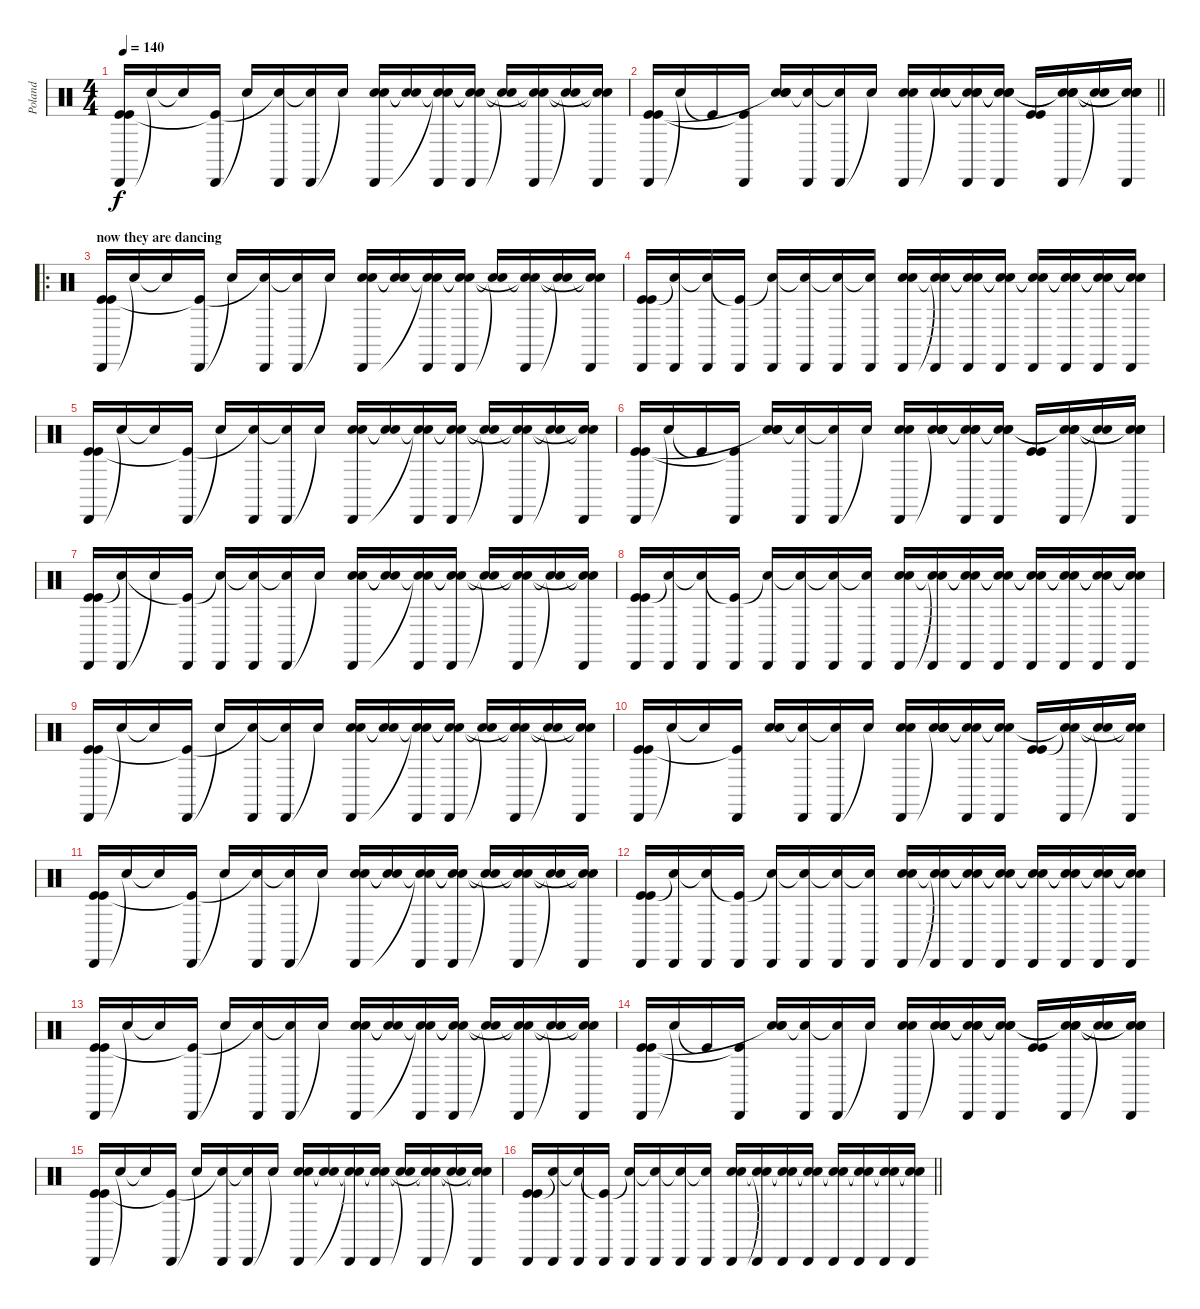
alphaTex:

\track ("Poland" "Poland") {instrument percussion}
\staff {score}
\articulation defaults
\ts (4 4)
\tempo 140
\clef neutral
\ks c
("Cabasa (hit)" "Kick (hit)" "Kick (hit)").16{dy f} "Snare (hit)"{t}.16 "Snare (hit)"{t}.16 ("Cabasa (hit)" "Kick (hit)"{t}).16 "Snare (hit)"{t}.16 ("Cabasa (hit)" "Snare (hit)"{t}).16 ("Cabasa (hit)" "Snare (hit)"{t}).16 "Snare (hit)"{t}.16 ("Hand Clap (hit)" "Hand Clap (hit)" "Cabasa (hit)").16 ("Snare (hit)"{t} "Snare (hit)"{t}).16 ("Cabasa (hit)" "Snare (hit)"{t} "Snare (hit)"{t}).16 ("Cabasa (hit)" "Snare (hit)"{t} "Snare (hit)"{t}).16 ("Snare (hit)"{t} "Snare (hit)"{t}).16 ("Cabasa (hit)" "Snare (hit)"{t} "Snare (hit)"{t}).16 ("Snare (hit)"{t} "Snare (hit)"{t}).16 ("Cabasa (hit)" "Snare (hit)"{t} "Snare (hit)"{t}).16 |
\barLineRight lightlight
("Cabasa (hit)" "Kick (hit)" "Kick (hit)").16 "Snare (hit)"{t}.16 "Kick (hit)"{t}.16 ("Cabasa (hit)" "Kick (hit)"{t}).16 ("Hand Clap (hit)" "Hand Clap (hit)" "Snare (hit)"{t}).16 ("Cabasa (hit)" "Snare (hit)"{t}).16 ("Cabasa (hit)" "Snare (hit)"{t}).16 "Snare (hit)"{t}.16 ("Hand Clap (hit)" "Hand Clap (hit)" "Cabasa (hit)").16 ("Hand Clap (hit)" "Hand Clap (hit)" "Snare (hit)"{t} "Snare (hit)").16 ("Hand Clap (hit)" "Cabasa (hit)" "Snare (hit)"{t} "Snare (hit)"{t}).16 ("Hand Clap (hit)" "Cabasa (hit)" "Snare (hit)"{t} "Snare (hit)"{t}).16 ("Kick (hit)" "Kick (hit)").16 ("Hand Clap (hit)" "Cabasa (hit)" "Snare (hit)"{t} "Snare (hit)"{t}).16 ("Snare (hit)"{t} "Snare (hit)"{t}).16 ("Hand Clap (hit)" "Cabasa (hit)" "Snare (hit)"{t} "Snare (hit)"{t}).16 |
\ro
\section ("" "now they are dancing")
("Cabasa (hit)" "Kick (hit)" "Kick (hit)").16 "Snare (hit)"{t}.16 "Snare (hit)"{t}.16 ("Cabasa (hit)" "Kick (hit)"{t}).16 "Snare (hit)"{t}.16 ("Cabasa (hit)" "Snare (hit)"{t}).16 ("Cabasa (hit)" "Snare (hit)"{t}).16 "Snare (hit)"{t}.16 ("Hand Clap (hit)" "Hand Clap (hit)" "Cabasa (hit)").16 ("Snare (hit)"{t} "Snare (hit)"{t}).16 ("Cabasa (hit)" "Snare (hit)"{t} "Snare (hit)"{t}).16 ("Cabasa (hit)" "Snare (hit)"{t} "Snare (hit)"{t}).16 ("Snare (hit)"{t} "Snare (hit)"{t}).16 ("Cabasa (hit)" "Snare (hit)"{t} "Snare (hit)"{t}).16 ("Snare (hit)"{t} "Snare (hit)"{t}).16 ("Cabasa (hit)" "Snare (hit)"{t} "Snare (hit)"{t}).16 |
("Cabasa (hit)" "Kick (hit)" "Kick (hit)").16 ("Cabasa (hit)" "Snare (hit)"{t}).16 ("Cabasa (hit)" "Snare (hit)"{t}).16 ("Cabasa (hit)" "Kick (hit)"{t}).16 ("Cabasa (hit)" "Snare (hit)"{t}).16 ("Cabasa (hit)" "Snare (hit)"{t}).16 ("Cabasa (hit)" "Snare (hit)"{t}).16 ("Cabasa (hit)" "Snare (hit)"{t}).16 ("Hand Clap (hit)" "Hand Clap (hit)" "Cabasa (hit)").16 ("Cabasa (hit)" "Snare (hit)"{t} "Snare (hit)"{t}).16 ("Cabasa (hit)" "Snare (hit)"{t} "Snare (hit)"{t}).16 ("Cabasa (hit)" "Snare (hit)"{t} "Snare (hit)"{t}).16 ("Cabasa (hit)" "Snare (hit)"{t} "Snare (hit)"{t}).16 ("Cabasa (hit)" "Snare (hit)"{t} "Snare (hit)"{t}).16 ("Cabasa (hit)" "Snare (hit)"{t} "Snare (hit)"{t}).16 ("Cabasa (hit)" "Snare (hit)"{t} "Snare (hit)"{t}).16 |
("Cabasa (hit)" "Kick (hit)" "Kick (hit)").16 "Snare (hit)"{t}.16 "Snare (hit)"{t}.16 ("Cabasa (hit)" "Kick (hit)"{t}).16 "Snare (hit)"{t}.16 ("Cabasa (hit)" "Snare (hit)"{t}).16 ("Cabasa (hit)" "Snare (hit)"{t}).16 "Snare (hit)"{t}.16 ("Hand Clap (hit)" "Hand Clap (hit)" "Cabasa (hit)").16 ("Snare (hit)"{t} "Snare (hit)"{t}).16 ("Cabasa (hit)" "Snare (hit)"{t} "Snare (hit)"{t}).16 ("Cabasa (hit)" "Snare (hit)"{t} "Snare (hit)"{t}).16 ("Snare (hit)"{t} "Snare (hit)"{t}).16 ("Cabasa (hit)" "Snare (hit)"{t} "Snare (hit)"{t}).16 ("Snare (hit)"{t} "Snare (hit)"{t}).16 ("Cabasa (hit)" "Snare (hit)"{t} "Snare (hit)"{t}).16 |
("Cabasa (hit)" "Kick (hit)" "Kick (hit)").16 "Snare (hit)"{t}.16 "Kick (hit)"{t}.16 ("Cabasa (hit)" "Kick (hit)"{t}).16 ("Hand Clap (hit)" "Hand Clap (hit)" "Snare (hit)"{t}).16 ("Cabasa (hit)" "Snare (hit)"{t}).16 ("Cabasa (hit)" "Snare (hit)"{t}).16 "Snare (hit)"{t}.16 ("Hand Clap (hit)" "Hand Clap (hit)" "Cabasa (hit)").16 ("Hand Clap (hit)" "Hand Clap (hit)" "Snare (hit)"{t} "Snare (hit)").16 ("Hand Clap (hit)" "Cabasa (hit)" "Snare (hit)"{t} "Snare (hit)"{t}).16 ("Hand Clap (hit)" "Cabasa (hit)" "Snare (hit)"{t} "Snare (hit)"{t}).16 ("Kick (hit)" "Kick (hit)").16 ("Hand Clap (hit)" "Cabasa (hit)" "Snare (hit)"{t} "Snare (hit)"{t}).16 ("Snare (hit)"{t} "Snare (hit)"{t}).16 ("Hand Clap (hit)" "Cabasa (hit)" "Snare (hit)"{t} "Snare (hit)"{t}).16 |
("Cabasa (hit)" "Kick (hit)" "Kick (hit)").16{volume 11} ("Cabasa (hit)" "Snare (hit)"{t}).16 "Snare (hit)"{t}.16 ("Cabasa (hit)" "Kick (hit)"{t}).16 ("Cabasa (hit)" "Snare (hit)"{t}).16 ("Cabasa (hit)" "Snare (hit)"{t}).16 ("Cabasa (hit)" "Snare (hit)"{t}).16 "Snare (hit)"{t}.16 ("Hand Clap (hit)" "Hand Clap (hit)" "Cabasa (hit)").16 ("Snare (hit)"{t} "Snare (hit)"{t}).16 ("Cabasa (hit)" "Snare (hit)"{t} "Snare (hit)"{t}).16 ("Cabasa (hit)" "Snare (hit)"{t} "Snare (hit)"{t}).16 ("Snare (hit)"{t} "Snare (hit)"{t}).16 ("Cabasa (hit)" "Snare (hit)"{t} "Snare (hit)"{t}).16 ("Snare (hit)"{t} "Snare (hit)"{t}).16 ("Cabasa (hit)" "Snare (hit)"{t} "Snare (hit)"{t}).16 |
("Cabasa (hit)" "Kick (hit)" "Kick (hit)").16 ("Cabasa (hit)" "Snare (hit)"{t}).16 ("Cabasa (hit)" "Snare (hit)"{t}).16 ("Cabasa (hit)" "Kick (hit)"{t}).16 ("Cabasa (hit)" "Snare (hit)"{t}).16 ("Cabasa (hit)" "Snare (hit)"{t}).16 ("Cabasa (hit)" "Snare (hit)"{t}).16 ("Cabasa (hit)" "Snare (hit)"{t}).16 ("Hand Clap (hit)" "Hand Clap (hit)" "Cabasa (hit)").16 ("Cabasa (hit)" "Snare (hit)"{t} "Snare (hit)"{t}).16 ("Cabasa (hit)" "Snare (hit)"{t} "Snare (hit)"{t}).16 ("Cabasa (hit)" "Snare (hit)"{t} "Snare (hit)"{t}).16 ("Cabasa (hit)" "Snare (hit)"{t} "Snare (hit)"{t}).16 ("Cabasa (hit)" "Snare (hit)"{t} "Snare (hit)"{t}).16 ("Cabasa (hit)" "Snare (hit)"{t} "Snare (hit)"{t}).16 ("Cabasa (hit)" "Snare (hit)"{t} "Snare (hit)"{t}).16 |
("Cabasa (hit)" "Kick (hit)" "Kick (hit)").16 "Snare (hit)"{t}.16 "Snare (hit)"{t}.16 ("Cabasa (hit)" "Kick (hit)"{t}).16 "Snare (hit)"{t}.16 ("Cabasa (hit)" "Snare (hit)"{t}).16 ("Cabasa (hit)" "Snare (hit)"{t}).16 "Snare (hit)"{t}.16 ("Hand Clap (hit)" "Hand Clap (hit)" "Cabasa (hit)").16 ("Snare (hit)"{t} "Snare (hit)"{t}).16 ("Cabasa (hit)" "Snare (hit)"{t} "Snare (hit)"{t}).16 ("Cabasa (hit)" "Snare (hit)"{t} "Snare (hit)"{t}).16 ("Snare (hit)"{t} "Snare (hit)"{t}).16 ("Cabasa (hit)" "Snare (hit)"{t} "Snare (hit)"{t}).16 ("Snare (hit)"{t} "Snare (hit)"{t}).16 ("Cabasa (hit)" "Snare (hit)"{t} "Snare (hit)"{t}).16 |
("Cabasa (hit)" "Kick (hit)" "Kick (hit)").16 "Snare (hit)"{t}.16 "Snare (hit)"{t}.16 ("Cabasa (hit)" "Kick (hit)"{t}).16 ("Hand Clap (hit)" "Hand Clap (hit)").16 ("Cabasa (hit)" "Snare (hit)"{t}).16 ("Cabasa (hit)" "Snare (hit)"{t}).16 "Snare (hit)"{t}.16 ("Hand Clap (hit)" "Hand Clap (hit)" "Cabasa (hit)").16 ("Hand Clap (hit)" "Hand Clap (hit)" "Snare (hit)"{t} "Snare (hit)").16 ("Cabasa (hit)" "Snare (hit)"{t} "Snare (hit)"{t}).16 ("Cabasa (hit)" "Snare (hit)"{t} "Snare (hit)"{t}).16 ("Kick (hit)" "Kick (hit)").16 ("Cabasa (hit)" "Snare (hit)"{t} "Snare (hit)"{t}).16 ("Snare (hit)"{t} "Snare (hit)"{t}).16 ("Cabasa (hit)" "Snare (hit)"{t} "Snare (hit)"{t}).16 |
("Cabasa (hit)" "Kick (hit)" "Kick (hit)").16 "Snare (hit)"{t}.16 "Snare (hit)"{t}.16 ("Cabasa (hit)" "Kick (hit)"{t}).16 "Snare (hit)"{t}.16 ("Cabasa (hit)" "Snare (hit)"{t}).16 ("Cabasa (hit)" "Snare (hit)"{t}).16 "Snare (hit)"{t}.16 ("Hand Clap (hit)" "Hand Clap (hit)" "Cabasa (hit)").16 ("Snare (hit)"{t} "Snare (hit)"{t}).16 ("Cabasa (hit)" "Snare (hit)"{t} "Snare (hit)"{t}).16 ("Cabasa (hit)" "Snare (hit)"{t} "Snare (hit)"{t}).16 ("Snare (hit)"{t} "Snare (hit)"{t}).16 ("Cabasa (hit)" "Snare (hit)"{t} "Snare (hit)"{t}).16 ("Snare (hit)"{t} "Snare (hit)"{t}).16 ("Cabasa (hit)" "Snare (hit)"{t} "Snare (hit)"{t}).16 |
("Cabasa (hit)" "Kick (hit)" "Kick (hit)").16 ("Cabasa (hit)" "Snare (hit)"{t}).16 ("Cabasa (hit)" "Snare (hit)"{t}).16 ("Cabasa (hit)" "Kick (hit)"{t}).16 ("Cabasa (hit)" "Snare (hit)"{t}).16 ("Cabasa (hit)" "Snare (hit)"{t}).16 ("Cabasa (hit)" "Snare (hit)"{t}).16 ("Cabasa (hit)" "Snare (hit)"{t}).16 ("Hand Clap (hit)" "Hand Clap (hit)" "Cabasa (hit)").16 ("Cabasa (hit)" "Snare (hit)"{t} "Snare (hit)"{t}).16 ("Cabasa (hit)" "Snare (hit)"{t} "Snare (hit)"{t}).16 ("Cabasa (hit)" "Snare (hit)"{t} "Snare (hit)"{t}).16 ("Cabasa (hit)" "Snare (hit)"{t} "Snare (hit)"{t}).16 ("Cabasa (hit)" "Snare (hit)"{t} "Snare (hit)"{t}).16 ("Cabasa (hit)" "Snare (hit)"{t} "Snare (hit)"{t}).16 ("Cabasa (hit)" "Snare (hit)"{t} "Snare (hit)"{t}).16 |
("Cabasa (hit)" "Kick (hit)" "Kick (hit)").16{volume 14} "Snare (hit)"{t}.16 "Snare (hit)"{t}.16 ("Cabasa (hit)" "Kick (hit)"{t}).16 "Snare (hit)"{t}.16 ("Cabasa (hit)" "Snare (hit)"{t}).16 ("Cabasa (hit)" "Snare (hit)"{t}).16 "Snare (hit)"{t}.16 ("Hand Clap (hit)" "Hand Clap (hit)" "Cabasa (hit)").16 ("Snare (hit)"{t} "Snare (hit)"{t}).16 ("Cabasa (hit)" "Snare (hit)"{t} "Snare (hit)"{t}).16 ("Cabasa (hit)" "Snare (hit)"{t} "Snare (hit)"{t}).16 ("Snare (hit)"{t} "Snare (hit)"{t}).16 ("Cabasa (hit)" "Snare (hit)"{t} "Snare (hit)"{t}).16 ("Snare (hit)"{t} "Snare (hit)"{t}).16 ("Cabasa (hit)" "Snare (hit)"{t} "Snare (hit)"{t}).16 |
("Cabasa (hit)" "Kick (hit)" "Kick (hit)").16 "Snare (hit)"{t}.16 "Kick (hit)"{t}.16 ("Cabasa (hit)" "Kick (hit)"{t}).16 ("Hand Clap (hit)" "Hand Clap (hit)" "Snare (hit)"{t}).16 ("Cabasa (hit)" "Snare (hit)"{t}).16 ("Cabasa (hit)" "Snare (hit)"{t}).16 "Snare (hit)"{t}.16 ("Hand Clap (hit)" "Hand Clap (hit)" "Cabasa (hit)").16 ("Hand Clap (hit)" "Hand Clap (hit)" "Snare (hit)"{t} "Snare (hit)").16 ("Hand Clap (hit)" "Cabasa (hit)" "Snare (hit)"{t} "Snare (hit)"{t}).16 ("Hand Clap (hit)" "Cabasa (hit)" "Snare (hit)"{t} "Snare (hit)"{t}).16 ("Kick (hit)" "Kick (hit)").16 ("Hand Clap (hit)" "Cabasa (hit)" "Snare (hit)"{t} "Snare (hit)"{t}).16 ("Snare (hit)"{t} "Snare (hit)"{t}).16 ("Hand Clap (hit)" "Cabasa (hit)" "Snare (hit)"{t} "Snare (hit)"{t}).16 |
("Cabasa (hit)" "Kick (hit)" "Kick (hit)").16 "Snare (hit)"{t}.16 "Snare (hit)"{t}.16 ("Cabasa (hit)" "Kick (hit)"{t}).16 "Snare (hit)"{t}.16 ("Cabasa (hit)" "Snare (hit)"{t}).16 ("Cabasa (hit)" "Snare (hit)"{t}).16 "Snare (hit)"{t}.16 ("Hand Clap (hit)" "Hand Clap (hit)" "Cabasa (hit)").16 ("Snare (hit)"{t} "Snare (hit)"{t}).16 ("Cabasa (hit)" "Snare (hit)"{t} "Snare (hit)"{t}).16 ("Cabasa (hit)" "Snare (hit)"{t} "Snare (hit)"{t}).16 ("Snare (hit)"{t} "Snare (hit)"{t}).16 ("Cabasa (hit)" "Snare (hit)"{t} "Snare (hit)"{t}).16 ("Snare (hit)"{t} "Snare (hit)"{t}).16 ("Cabasa (hit)" "Snare (hit)"{t} "Snare (hit)"{t}).16 |
\barLineRight lightlight
("Cabasa (hit)" "Kick (hit)" "Kick (hit)").16 ("Cabasa (hit)" "Snare (hit)"{t}).16 ("Cabasa (hit)" "Snare (hit)"{t}).16 ("Cabasa (hit)" "Kick (hit)"{t}).16 ("Cabasa (hit)" "Snare (hit)"{t}).16 ("Cabasa (hit)" "Snare (hit)"{t}).16 ("Cabasa (hit)" "Snare (hit)"{t}).16 ("Cabasa (hit)" "Snare (hit)"{t}).16 ("Hand Clap (hit)" "Hand Clap (hit)" "Cabasa (hit)").16 ("Cabasa (hit)" "Snare (hit)"{t} "Snare (hit)"{t}).16 ("Cabasa (hit)" "Snare (hit)"{t} "Snare (hit)"{t}).16 ("Cabasa (hit)" "Snare (hit)"{t} "Snare (hit)"{t}).16 ("Cabasa (hit)" "Snare (hit)"{t} "Snare (hit)"{t}).16 ("Cabasa (hit)" "Snare (hit)"{t} "Snare (hit)"{t}).16 ("Cabasa (hit)" "Snare (hit)"{t} "Snare (hit)"{t}).16 ("Cabasa (hit)" "Snare (hit)"{t} "Snare (hit)"{t}).16
